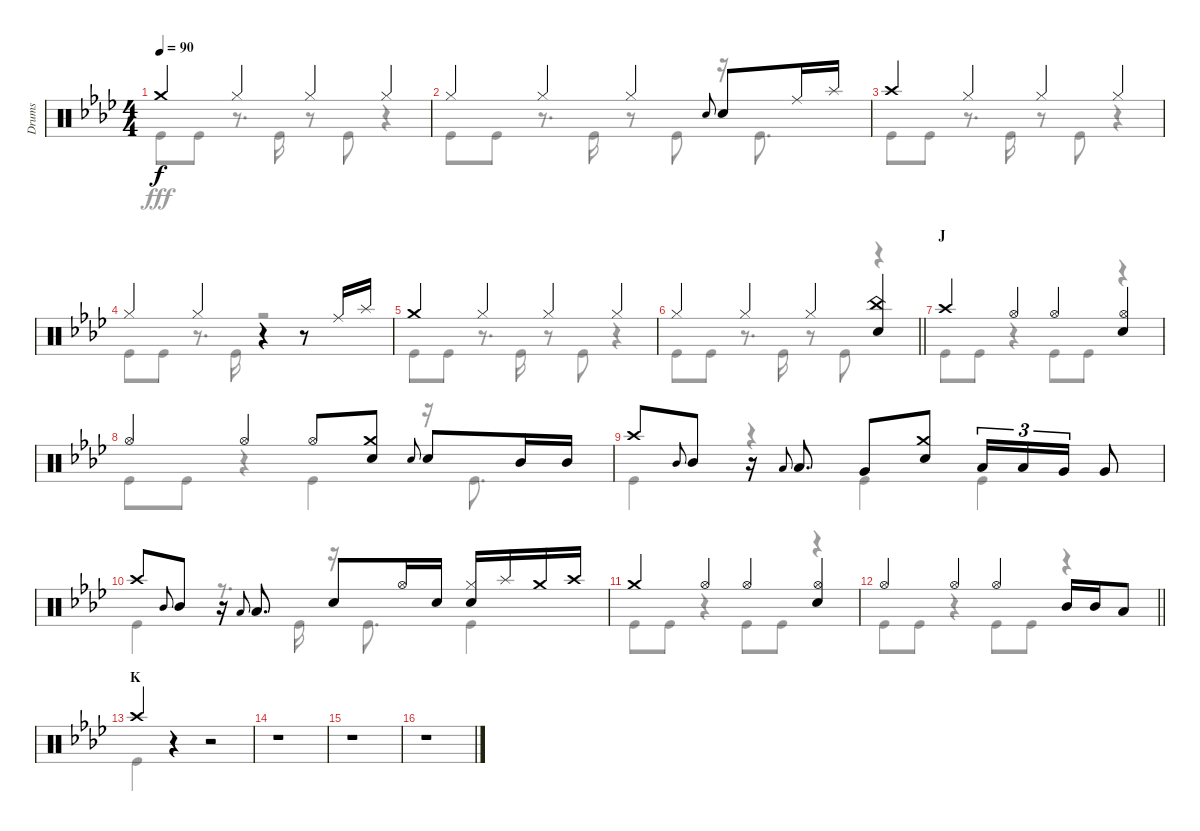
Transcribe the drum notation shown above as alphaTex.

\track ("Drums" "Drums") {instrument percussion}
\staff {score}
\articulation defaults
\voice
\ts (4 4)
\tempo 90
\clef neutral
\ks ab "Crash medium (hit)".4{dy f} "Hi-Hat (closed)".4 "Hi-Hat (closed)".4 "Hi-Hat (closed)".4
|
"Hi-Hat (closed)".4 "Hi-Hat (closed)".4 "Hi-Hat (closed)".4 "Snare (hit) 2".8{gr onbeat} "Snare (hit) 2".8 "Ride (middle)".16 "Splash (hit)".16 |
"Crash high (hit)".4 "Hi-Hat (closed)".4 "Hi-Hat (closed)".4 "Hi-Hat (closed)".4 |
"Hi-Hat (closed)".4 "Hi-Hat (closed)".4 r.4 r.8 "Ride (middle)".16 "Splash (hit)".16 |
"Crash medium (hit)".4 "Hi-Hat (closed)".4 "Hi-Hat (closed)".4 "Hi-Hat (closed)".4 |
\barLineRight lightlight "Hi-Hat (closed)".4 "Hi-Hat (closed)".4 "Hi-Hat (closed)".4
("China (hit)" "Snare (hit) 2").4 |
\section ("" "J")
"Crash high (hit)".4 "Hi-Hat (open)".4 "Hi-Hat (open)".4 ("Hi-Hat (open)" "Snare (hit) 2").4 |
"Hi-Hat (open)".4 "Hi-Hat (open)".4 "Hi-Hat (open)".8 ("Crash medium (hit)" "Snare (hit) 2").8 "Snare (hit) 2".8{gr onbeat} "Snare (hit) 2".8 "Mid Tom (hit)".16 "Mid Tom (hit)".16 |
"Crash high (hit)".8 "Mid Tom (hit)".8{gr onbeat} "Mid Tom (hit)".8 r.16 "Low Tom (hit)".8{gr onbeat} "Low Tom (hit)".8{d} "Very Low Tom (hit)".8 ("Crash medium (hit)" "Snare (hit) 2").8 "Low Tom (hit)".16{tu (3 2)} "Low Tom (hit)".16{tu (3 2)} "Very Low Tom (hit)".16{tu (3 2)} "Very Low Tom (hit)".8 |
"Crash high (hit)".8 "Mid Tom (hit)".8{gr onbeat} "Mid Tom (hit)".8 r.16 "Low Tom (hit)".8{gr onbeat} "Low Tom (hit)".8{d} "Snare (hit) 2".8 "Hi-Hat (open)".16 "Snare (hit) 2".16 ("Hi-Hat (closed)" "Snare (hit) 2").16 "Splash (hit)".16 "Crash medium (hit)".16 "Crash high (hit)".16 |
"Crash medium (hit)".4 "Hi-Hat (open)".4 "Hi-Hat (open)".4 ("Hi-Hat (open)" "Snare (hit) 2").4 |
\barLineRight lightlight "Hi-Hat (open)".4 "Hi-Hat (open)".4 "Hi-Hat (open)".4 "Mid Tom (hit)".16 "Mid Tom (hit)".16 "Low Tom (hit)".8
|
\section ("" "K")
"Crash high (hit)".4 r.4 r.2 |
r.1 |
r.1 |
r.1
\voice
\clef neutral
\ottava regular
\simile none
\ks ab "Kick (hit)".8{dy fff} "Kick (hit)".8
r.8{d} "Kick (hit)".16 r.8 "Kick (hit)".8 r.4 |
"Kick (hit)".8 "Kick (hit)".8 r.8{d} "Kick (hit)".16 r.8 "Kick (hit)".8 r.16 "Kick (hit)".8{d} |
"Kick (hit)".8 "Kick (hit)".8 r.8{d} "Kick (hit)".16 r.8 "Kick (hit)".8 r.4 |
"Kick (hit)".8 "Kick (hit)".8 r.8{d} "Kick (hit)".16 r.2 |
"Kick (hit)".8 "Kick (hit)".8 r.8{d} "Kick (hit)".16 r.8 "Kick (hit)".8 r.4 |
\barLineRight lightlight "Kick (hit)".8 "Kick (hit)".8
r.8{d} "Kick (hit)".16 r.8 "Kick (hit)".8 r.4 |
"Kick (hit)".8 "Kick (hit)".8 r.4 "Kick (hit)".8 "Kick (hit)".8 r.4 |
"Kick (hit)".8 "Kick (hit)".8 r.4 "Kick (hit)".4 r.16 "Kick (hit)".8{d} |
"Kick (hit)".4 r.4 "Kick (hit)".4 "Kick (hit)".4 |
"Kick (hit)".4 r.8{d} "Kick (hit)".16 r.16 "Kick (hit)".8{d} "Kick (hit)".4 |
"Kick (hit)".8 "Kick (hit)".8 r.4 "Kick (hit)".8 "Kick (hit)".8 r.4 |
\barLineRight lightlight "Kick (hit)".8 "Kick (hit)".8
r.4 "Kick (hit)".8 "Kick (hit)".8 r.4 |
"Kick (hit)".4 r.4 r.2 |
r.1 |
r.1 |
r.1
